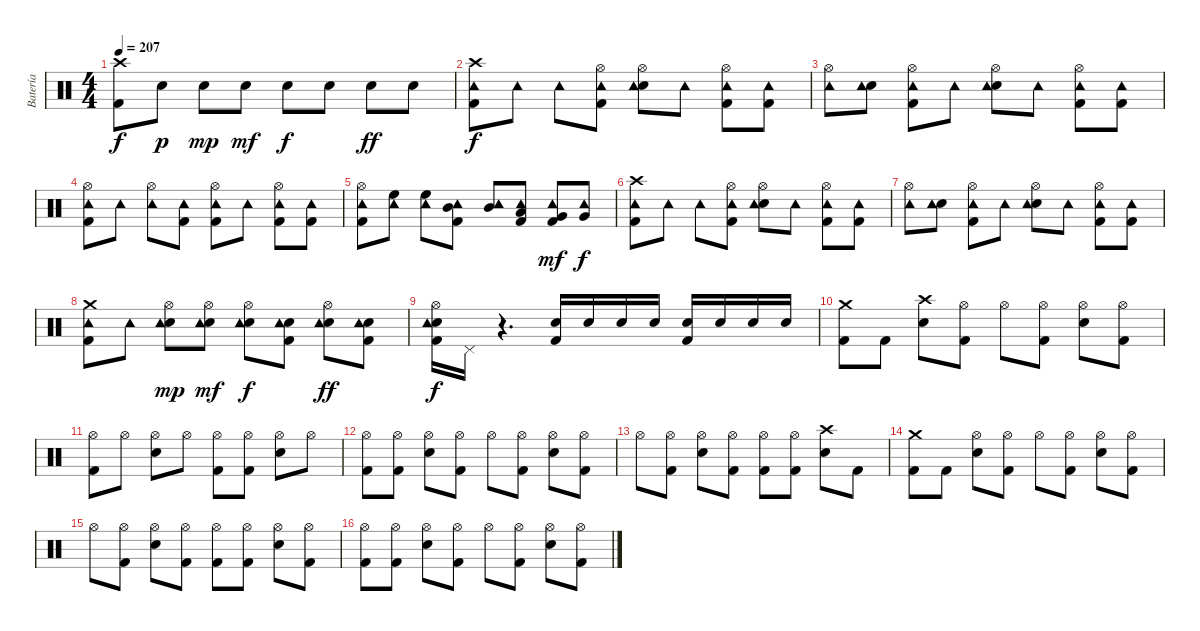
\track ("Batería" "Batería") {instrument percussion}
\staff {score}
\articulation defaults
\ts (4 4)
\tempo 207
\clef neutral
\ks c
("Crash high (hit)" "Kick (hit) 2").8{dy f} "Snare (hit) 2".8{dy p} "Snare (hit) 2".8{dy mp} "Snare (hit) 2".8{dy mf} "Snare (hit) 2".8{dy f} "Snare (hit) 2".8 "Snare (hit) 2".8{dy ff} "Snare (hit) 2".8 |
("Crash high (hit)" "Tambourine (hit)" "Kick (hit) 2").8{dy f} "Tambourine (hit)".8 "Tambourine (hit)".8 ("Tambourine (hit)" "Hi-Hat (open)" "Kick (hit) 2").8 ("Snare (hit) 2" "Tambourine (hit)" "Hi-Hat (open)").8 "Tambourine (hit)".8 ("Tambourine (hit)" "Hi-Hat (open)" "Kick (hit) 2").8 ("Tambourine (hit)" "Kick (hit) 2").8 |
("Tambourine (hit)" "Hi-Hat (open)").8 ("Snare (hit) 2" "Tambourine (hit)").8 ("Tambourine (hit)" "Hi-Hat (open)" "Kick (hit) 2").8 "Tambourine (hit)".8 ("Snare (hit) 2" "Tambourine (hit)" "Hi-Hat (open)").8 "Tambourine (hit)".8 ("Tambourine (hit)" "Hi-Hat (open)" "Kick (hit) 2").8 ("Tambourine (hit)" "Kick (hit) 2").8 |
("Tambourine (hit)" "Hi-Hat (open)" "Kick (hit) 2").8 "Tambourine (hit)".8 ("Tambourine (hit)" "Hi-Hat (open)").8 ("Tambourine (hit)" "Kick (hit) 2").8 ("Kick (hit) 2" "Tambourine (hit)" "Hi-Hat (open)").8 "Tambourine (hit)".8 ("Tambourine (hit)" "Hi-Hat (open)" "Kick (hit) 2").8 ("Tambourine (hit)" "Kick (hit) 2").8 |
("Tambourine (hit)" "Hi-Hat (open)" "Kick (hit) 2").8 ("High Floor Tom (hit)" "Tambourine (hit)").8 ("High Floor Tom (hit)" "Tambourine (hit)").8 ("Mid Tom (hit)" "Tambourine (hit)" "Kick (hit) 2").8 ("Mid Tom (hit)" "Tambourine (hit)").8 ("Low Tom (hit)" "Tambourine (hit)" "Kick (hit) 2").8 ("Very Low Tom (hit)" "Tambourine (hit)" "Kick (hit) 2").8{dy mf} ("Very Low Tom (hit)" "Tambourine (hit)").8{dy f} |
("Crash high (hit)" "Tambourine (hit)" "Kick (hit) 2").8 "Tambourine (hit)".8 "Tambourine (hit)".8 ("Tambourine (hit)" "Hi-Hat (open)" "Kick (hit) 2").8 ("Snare (hit) 2" "Tambourine (hit)" "Hi-Hat (open)").8 "Tambourine (hit)".8 ("Tambourine (hit)" "Hi-Hat (open)" "Kick (hit) 2").8 ("Tambourine (hit)" "Kick (hit) 2").8 |
("Tambourine (hit)" "Hi-Hat (open)").8 ("Snare (hit) 2" "Tambourine (hit)").8 ("Tambourine (hit)" "Hi-Hat (open)" "Kick (hit) 2").8 "Tambourine (hit)".8 ("Snare (hit) 2" "Tambourine (hit)" "Hi-Hat (open)").8 "Tambourine (hit)".8 ("Tambourine (hit)" "Hi-Hat (open)" "Kick (hit) 2").8 ("Tambourine (hit)" "Kick (hit) 2").8 |
("Crash medium (hit)" "Tambourine (hit)" "Kick (hit) 2").8 "Tambourine (hit)".8 ("Snare (hit) 2" "Tambourine (hit)" "Hi-Hat (open)").8{dy mp} ("Snare (hit) 2" "Tambourine (hit)" "Hi-Hat (open)").8{dy mf} ("Snare (hit) 2" "Tambourine (hit)" "Hi-Hat (open)").8{dy f} ("Snare (hit) 2" "Tambourine (hit)" "Kick (hit) 2").8 ("Snare (hit) 2" "Tambourine (hit)" "Hi-Hat (open)").8{dy ff} ("Snare (hit) 2" "Tambourine (hit)" "Kick (hit) 2").8 |
("Snare (hit) 2" "Tambourine (hit)" "Hi-Hat (open)" "Kick (hit) 2").16{dy f} "Pedal Hi-Hat (hit)".16 r.4{d} ("Snare (hit) 2" "Kick (hit) 2").16 "Snare (hit) 2".16 "Snare (hit) 2".16 "Snare (hit) 2".16 ("Snare (hit) 2" "Kick (hit) 2").16 "Snare (hit) 2".16 "Snare (hit) 2".16 "Snare (hit) 2".16 |
("Crash medium (hit)" "Kick (hit) 2").8 "Kick (hit) 2".8 ("Crash high (hit)" "Snare (hit) 2").8 ("Hi-Hat (open)" "Kick (hit) 2").8 "Hi-Hat (open)".8 ("Hi-Hat (open)" "Kick (hit) 2").8 ("Snare (hit) 2" "Hi-Hat (open)").8 ("Hi-Hat (open)" "Kick (hit) 2").8 |
("Hi-Hat (open)" "Kick (hit) 2").8 "Hi-Hat (open)".8 ("Snare (hit) 2" "Hi-Hat (open)").8 "Hi-Hat (open)".8 ("Hi-Hat (open)" "Kick (hit) 2").8 ("Hi-Hat (open)" "Kick (hit) 2").8 ("Snare (hit) 2" "Hi-Hat (open)").8 "Hi-Hat (open)".8 |
("Hi-Hat (open)" "Kick (hit) 2").8 ("Hi-Hat (open)" "Kick (hit) 2").8 ("Snare (hit) 2" "Hi-Hat (open)").8 ("Hi-Hat (open)" "Kick (hit) 2").8 "Hi-Hat (open)".8 ("Hi-Hat (open)" "Kick (hit) 2").8 ("Snare (hit) 2" "Hi-Hat (open)").8 ("Hi-Hat (open)" "Kick (hit) 2").8 |
"Hi-Hat (open)".8 ("Hi-Hat (open)" "Kick (hit) 2").8 ("Snare (hit) 2" "Hi-Hat (open)").8 ("Hi-Hat (open)" "Kick (hit) 2").8 ("Hi-Hat (open)" "Kick (hit) 2").8 ("Hi-Hat (open)" "Kick (hit) 2").8 ("Crash high (hit)" "Snare (hit) 2").8 "Kick (hit) 2".8 |
("Crash medium (hit)" "Kick (hit) 2").8 "Kick (hit) 2".8 ("Snare (hit) 2" "Hi-Hat (open)").8 ("Hi-Hat (open)" "Kick (hit) 2").8 "Hi-Hat (open)".8 ("Hi-Hat (open)" "Kick (hit) 2").8 ("Snare (hit) 2" "Hi-Hat (open)").8 ("Hi-Hat (open)" "Kick (hit) 2").8 |
"Hi-Hat (open)".8 ("Hi-Hat (open)" "Kick (hit) 2").8 ("Snare (hit) 2" "Hi-Hat (open)").8 ("Hi-Hat (open)" "Kick (hit) 2").8 ("Hi-Hat (open)" "Kick (hit) 2").8 ("Hi-Hat (open)" "Kick (hit) 2").8 ("Snare (hit) 2" "Hi-Hat (open)").8 ("Hi-Hat (open)" "Kick (hit) 2").8 |
("Hi-Hat (open)" "Kick (hit) 2").8 ("Hi-Hat (open)" "Kick (hit) 2").8 ("Snare (hit) 2" "Hi-Hat (open)").8 ("Hi-Hat (open)" "Kick (hit) 2").8 "Hi-Hat (open)".8 ("Hi-Hat (open)" "Kick (hit) 2").8 ("Snare (hit) 2" "Hi-Hat (open)").8 ("Hi-Hat (open)" "Kick (hit) 2").8
